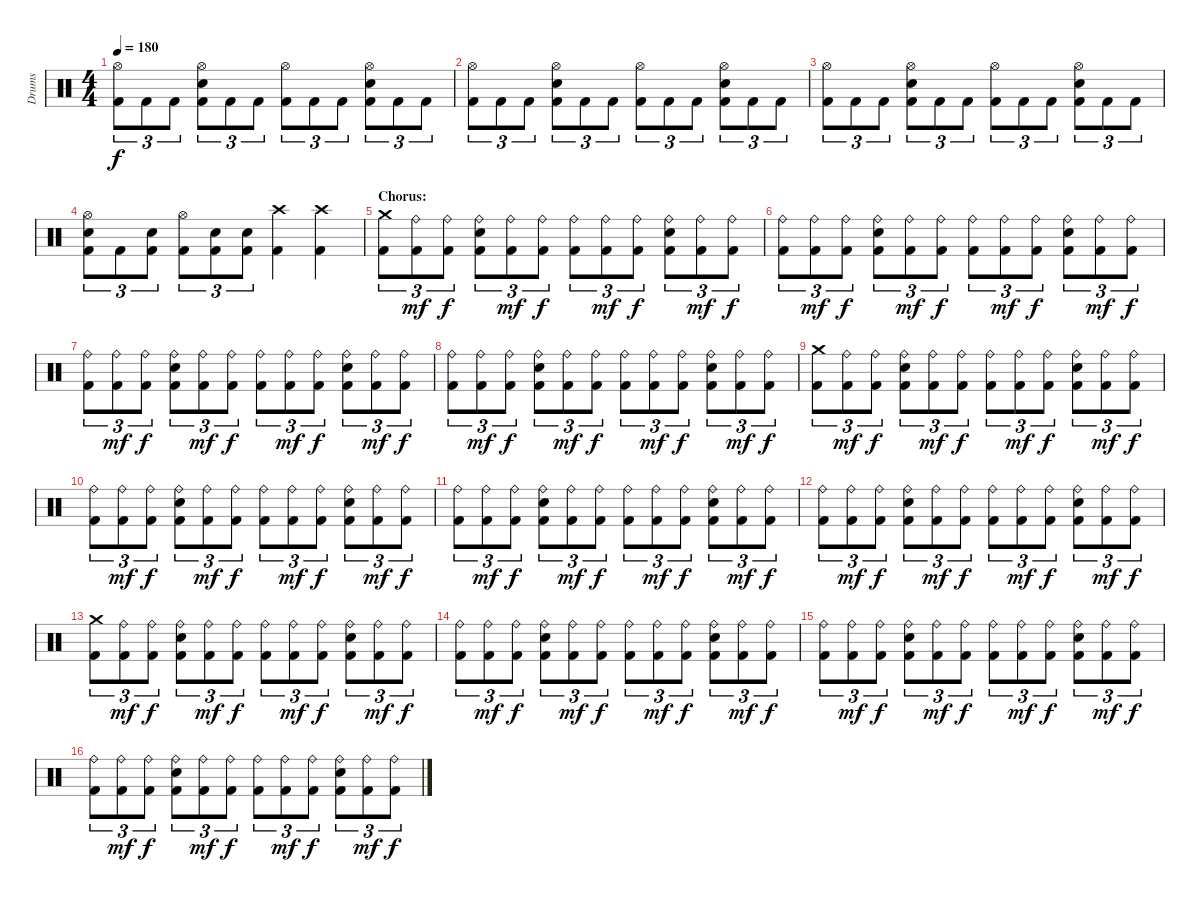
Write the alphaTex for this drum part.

\track ("Drums" "Drums") {instrument percussion}
\staff {score}
\articulation defaults
\ts (4 4)
\tempo 180
\clef neutral
\ks c
("Hi-Hat (open)" "Kick (hit) 2").8{tu (3 2) dy f} "Kick (hit) 2".8{tu (3 2)} "Kick (hit) 2".8{tu (3 2)} ("Hi-Hat (open)" "Electric Snare (hit)" "Kick (hit) 2").8{tu (3 2)} "Kick (hit) 2".8{tu (3 2)} "Kick (hit) 2".8{tu (3 2)} ("Hi-Hat (open)" "Kick (hit) 2").8{tu (3 2)} "Kick (hit) 2".8{tu (3 2)} "Kick (hit) 2".8{tu (3 2)} ("Hi-Hat (open)" "Electric Snare (hit)" "Kick (hit) 2").8{tu (3 2)} "Kick (hit) 2".8{tu (3 2)} "Kick (hit) 2".8{tu (3 2)} |
("Hi-Hat (open)" "Kick (hit) 2").8{tu (3 2)} "Kick (hit) 2".8{tu (3 2)} "Kick (hit) 2".8{tu (3 2)} ("Hi-Hat (open)" "Electric Snare (hit)" "Kick (hit) 2").8{tu (3 2)} "Kick (hit) 2".8{tu (3 2)} "Kick (hit) 2".8{tu (3 2)} ("Hi-Hat (open)" "Kick (hit) 2").8{tu (3 2)} "Kick (hit) 2".8{tu (3 2)} "Kick (hit) 2".8{tu (3 2)} ("Hi-Hat (open)" "Electric Snare (hit)" "Kick (hit) 2").8{tu (3 2)} "Kick (hit) 2".8{tu (3 2)} "Kick (hit) 2".8{tu (3 2)} |
("Hi-Hat (open)" "Kick (hit) 2").8{tu (3 2)} "Kick (hit) 2".8{tu (3 2)} "Kick (hit) 2".8{tu (3 2)} ("Hi-Hat (open)" "Electric Snare (hit)" "Kick (hit) 2").8{tu (3 2)} "Kick (hit) 2".8{tu (3 2)} "Kick (hit) 2".8{tu (3 2)} ("Hi-Hat (open)" "Kick (hit) 2").8{tu (3 2)} "Kick (hit) 2".8{tu (3 2)} "Kick (hit) 2".8{tu (3 2)} ("Hi-Hat (open)" "Electric Snare (hit)" "Kick (hit) 2").8{tu (3 2)} "Kick (hit) 2".8{tu (3 2)} "Kick (hit) 2".8{tu (3 2)} |
("Hi-Hat (open)" "Electric Snare (hit)" "Kick (hit) 2").8{tu (3 2)} "Kick (hit) 2".8{tu (3 2)} ("Electric Snare (hit)" "Kick (hit) 2").8{tu (3 2)} ("Hi-Hat (open)" "Kick (hit) 2").8{tu (3 2)} ("Electric Snare (hit)" "Kick (hit) 2").8{tu (3 2)} ("Electric Snare (hit)" "Kick (hit) 2").8{tu (3 2)} ("Crash high (hit)" "Kick (hit) 2").4 ("Crash high (hit)" "Kick (hit) 2").4 |
\section ("" "Chorus:")
("Crash medium (hit)" "Kick (hit) 2").8{tu (3 2)} ("Ride (bell)" "Kick (hit) 2").8{tu (3 2) dy mf} ("Ride (bell)" "Kick (hit) 2").8{tu (3 2) dy f} ("Ride (bell)" "Electric Snare (hit)" "Kick (hit) 2").8{tu (3 2)} ("Ride (bell)" "Kick (hit) 2").8{tu (3 2) dy mf} ("Ride (bell)" "Kick (hit) 2").8{tu (3 2) dy f} ("Ride (bell)" "Kick (hit) 2").8{tu (3 2)} ("Ride (bell)" "Kick (hit) 2").8{tu (3 2) dy mf} ("Ride (bell)" "Kick (hit) 2").8{tu (3 2) dy f} ("Ride (bell)" "Electric Snare (hit)" "Kick (hit) 2").8{tu (3 2)} ("Ride (bell)" "Kick (hit) 2").8{tu (3 2) dy mf} ("Ride (bell)" "Kick (hit) 2").8{tu (3 2) dy f} |
("Ride (bell)" "Kick (hit) 2").8{tu (3 2)} ("Ride (bell)" "Kick (hit) 2").8{tu (3 2) dy mf} ("Ride (bell)" "Kick (hit) 2").8{tu (3 2) dy f} ("Ride (bell)" "Electric Snare (hit)" "Kick (hit) 2").8{tu (3 2)} ("Ride (bell)" "Kick (hit) 2").8{tu (3 2) dy mf} ("Ride (bell)" "Kick (hit) 2").8{tu (3 2) dy f} ("Ride (bell)" "Kick (hit) 2").8{tu (3 2)} ("Ride (bell)" "Kick (hit) 2").8{tu (3 2) dy mf} ("Ride (bell)" "Kick (hit) 2").8{tu (3 2) dy f} ("Ride (bell)" "Electric Snare (hit)" "Kick (hit) 2").8{tu (3 2)} ("Ride (bell)" "Kick (hit) 2").8{tu (3 2) dy mf} ("Ride (bell)" "Kick (hit) 2").8{tu (3 2) dy f} |
("Ride (bell)" "Kick (hit) 2").8{tu (3 2)} ("Ride (bell)" "Kick (hit) 2").8{tu (3 2) dy mf} ("Ride (bell)" "Kick (hit) 2").8{tu (3 2) dy f} ("Ride (bell)" "Electric Snare (hit)" "Kick (hit) 2").8{tu (3 2)} ("Ride (bell)" "Kick (hit) 2").8{tu (3 2) dy mf} ("Ride (bell)" "Kick (hit) 2").8{tu (3 2) dy f} ("Ride (bell)" "Kick (hit) 2").8{tu (3 2)} ("Ride (bell)" "Kick (hit) 2").8{tu (3 2) dy mf} ("Ride (bell)" "Kick (hit) 2").8{tu (3 2) dy f} ("Ride (bell)" "Electric Snare (hit)" "Kick (hit) 2").8{tu (3 2)} ("Ride (bell)" "Kick (hit) 2").8{tu (3 2) dy mf} ("Ride (bell)" "Kick (hit) 2").8{tu (3 2) dy f} |
("Ride (bell)" "Kick (hit) 2").8{tu (3 2)} ("Ride (bell)" "Kick (hit) 2").8{tu (3 2) dy mf} ("Ride (bell)" "Kick (hit) 2").8{tu (3 2) dy f} ("Ride (bell)" "Electric Snare (hit)" "Kick (hit) 2").8{tu (3 2)} ("Ride (bell)" "Kick (hit) 2").8{tu (3 2) dy mf} ("Ride (bell)" "Kick (hit) 2").8{tu (3 2) dy f} ("Ride (bell)" "Kick (hit) 2").8{tu (3 2)} ("Ride (bell)" "Kick (hit) 2").8{tu (3 2) dy mf} ("Ride (bell)" "Kick (hit) 2").8{tu (3 2) dy f} ("Ride (bell)" "Electric Snare (hit)" "Kick (hit) 2").8{tu (3 2)} ("Ride (bell)" "Kick (hit) 2").8{tu (3 2) dy mf} ("Ride (bell)" "Kick (hit) 2").8{tu (3 2) dy f} |
("Crash medium (hit)" "Kick (hit) 2").8{tu (3 2)} ("Ride (bell)" "Kick (hit) 2").8{tu (3 2) dy mf} ("Ride (bell)" "Kick (hit) 2").8{tu (3 2) dy f} ("Ride (bell)" "Electric Snare (hit)" "Kick (hit) 2").8{tu (3 2)} ("Ride (bell)" "Kick (hit) 2").8{tu (3 2) dy mf} ("Ride (bell)" "Kick (hit) 2").8{tu (3 2) dy f} ("Ride (bell)" "Kick (hit) 2").8{tu (3 2)} ("Ride (bell)" "Kick (hit) 2").8{tu (3 2) dy mf} ("Ride (bell)" "Kick (hit) 2").8{tu (3 2) dy f} ("Ride (bell)" "Electric Snare (hit)" "Kick (hit) 2").8{tu (3 2)} ("Ride (bell)" "Kick (hit) 2").8{tu (3 2) dy mf} ("Ride (bell)" "Kick (hit) 2").8{tu (3 2) dy f} |
("Ride (bell)" "Kick (hit) 2").8{tu (3 2)} ("Ride (bell)" "Kick (hit) 2").8{tu (3 2) dy mf} ("Ride (bell)" "Kick (hit) 2").8{tu (3 2) dy f} ("Ride (bell)" "Electric Snare (hit)" "Kick (hit) 2").8{tu (3 2)} ("Ride (bell)" "Kick (hit) 2").8{tu (3 2) dy mf} ("Ride (bell)" "Kick (hit) 2").8{tu (3 2) dy f} ("Ride (bell)" "Kick (hit) 2").8{tu (3 2)} ("Ride (bell)" "Kick (hit) 2").8{tu (3 2) dy mf} ("Ride (bell)" "Kick (hit) 2").8{tu (3 2) dy f} ("Ride (bell)" "Electric Snare (hit)" "Kick (hit) 2").8{tu (3 2)} ("Ride (bell)" "Kick (hit) 2").8{tu (3 2) dy mf} ("Ride (bell)" "Kick (hit) 2").8{tu (3 2) dy f} |
("Ride (bell)" "Kick (hit) 2").8{tu (3 2)} ("Ride (bell)" "Kick (hit) 2").8{tu (3 2) dy mf} ("Ride (bell)" "Kick (hit) 2").8{tu (3 2) dy f} ("Ride (bell)" "Electric Snare (hit)" "Kick (hit) 2").8{tu (3 2)} ("Ride (bell)" "Kick (hit) 2").8{tu (3 2) dy mf} ("Ride (bell)" "Kick (hit) 2").8{tu (3 2) dy f} ("Ride (bell)" "Kick (hit) 2").8{tu (3 2)} ("Ride (bell)" "Kick (hit) 2").8{tu (3 2) dy mf} ("Ride (bell)" "Kick (hit) 2").8{tu (3 2) dy f} ("Ride (bell)" "Electric Snare (hit)" "Kick (hit) 2").8{tu (3 2)} ("Ride (bell)" "Kick (hit) 2").8{tu (3 2) dy mf} ("Ride (bell)" "Kick (hit) 2").8{tu (3 2) dy f} |
("Ride (bell)" "Kick (hit) 2").8{tu (3 2)} ("Ride (bell)" "Kick (hit) 2").8{tu (3 2) dy mf} ("Ride (bell)" "Kick (hit) 2").8{tu (3 2) dy f} ("Ride (bell)" "Electric Snare (hit)" "Kick (hit) 2").8{tu (3 2)} ("Ride (bell)" "Kick (hit) 2").8{tu (3 2) dy mf} ("Ride (bell)" "Kick (hit) 2").8{tu (3 2) dy f} ("Ride (bell)" "Kick (hit) 2").8{tu (3 2)} ("Ride (bell)" "Kick (hit) 2").8{tu (3 2) dy mf} ("Ride (bell)" "Kick (hit) 2").8{tu (3 2) dy f} ("Ride (bell)" "Electric Snare (hit)" "Kick (hit) 2").8{tu (3 2)} ("Ride (bell)" "Kick (hit) 2").8{tu (3 2) dy mf} ("Ride (bell)" "Kick (hit) 2").8{tu (3 2) dy f} |
("Crash medium (hit)" "Kick (hit) 2").8{tu (3 2)} ("Ride (bell)" "Kick (hit) 2").8{tu (3 2) dy mf} ("Ride (bell)" "Kick (hit) 2").8{tu (3 2) dy f} ("Ride (bell)" "Electric Snare (hit)" "Kick (hit) 2").8{tu (3 2)} ("Ride (bell)" "Kick (hit) 2").8{tu (3 2) dy mf} ("Ride (bell)" "Kick (hit) 2").8{tu (3 2) dy f} ("Ride (bell)" "Kick (hit) 2").8{tu (3 2)} ("Ride (bell)" "Kick (hit) 2").8{tu (3 2) dy mf} ("Ride (bell)" "Kick (hit) 2").8{tu (3 2) dy f} ("Ride (bell)" "Electric Snare (hit)" "Kick (hit) 2").8{tu (3 2)} ("Ride (bell)" "Kick (hit) 2").8{tu (3 2) dy mf} ("Ride (bell)" "Kick (hit) 2").8{tu (3 2) dy f} |
("Ride (bell)" "Kick (hit) 2").8{tu (3 2)} ("Ride (bell)" "Kick (hit) 2").8{tu (3 2) dy mf} ("Ride (bell)" "Kick (hit) 2").8{tu (3 2) dy f} ("Ride (bell)" "Electric Snare (hit)" "Kick (hit) 2").8{tu (3 2)} ("Ride (bell)" "Kick (hit) 2").8{tu (3 2) dy mf} ("Ride (bell)" "Kick (hit) 2").8{tu (3 2) dy f} ("Ride (bell)" "Kick (hit) 2").8{tu (3 2)} ("Ride (bell)" "Kick (hit) 2").8{tu (3 2) dy mf} ("Ride (bell)" "Kick (hit) 2").8{tu (3 2) dy f} ("Ride (bell)" "Electric Snare (hit)" "Kick (hit) 2").8{tu (3 2)} ("Ride (bell)" "Kick (hit) 2").8{tu (3 2) dy mf} ("Ride (bell)" "Kick (hit) 2").8{tu (3 2) dy f} |
("Ride (bell)" "Kick (hit) 2").8{tu (3 2)} ("Ride (bell)" "Kick (hit) 2").8{tu (3 2) dy mf} ("Ride (bell)" "Kick (hit) 2").8{tu (3 2) dy f} ("Ride (bell)" "Electric Snare (hit)" "Kick (hit) 2").8{tu (3 2)} ("Ride (bell)" "Kick (hit) 2").8{tu (3 2) dy mf} ("Ride (bell)" "Kick (hit) 2").8{tu (3 2) dy f} ("Ride (bell)" "Kick (hit) 2").8{tu (3 2)} ("Ride (bell)" "Kick (hit) 2").8{tu (3 2) dy mf} ("Ride (bell)" "Kick (hit) 2").8{tu (3 2) dy f} ("Ride (bell)" "Electric Snare (hit)" "Kick (hit) 2").8{tu (3 2)} ("Ride (bell)" "Kick (hit) 2").8{tu (3 2) dy mf} ("Ride (bell)" "Kick (hit) 2").8{tu (3 2) dy f} |
("Ride (bell)" "Kick (hit) 2").8{tu (3 2)} ("Ride (bell)" "Kick (hit) 2").8{tu (3 2) dy mf} ("Ride (bell)" "Kick (hit) 2").8{tu (3 2) dy f} ("Ride (bell)" "Electric Snare (hit)" "Kick (hit) 2").8{tu (3 2)} ("Ride (bell)" "Kick (hit) 2").8{tu (3 2) dy mf} ("Ride (bell)" "Kick (hit) 2").8{tu (3 2) dy f} ("Ride (bell)" "Kick (hit) 2").8{tu (3 2)} ("Ride (bell)" "Kick (hit) 2").8{tu (3 2) dy mf} ("Ride (bell)" "Kick (hit) 2").8{tu (3 2) dy f} ("Ride (bell)" "Electric Snare (hit)" "Kick (hit) 2").8{tu (3 2)} ("Ride (bell)" "Kick (hit) 2").8{tu (3 2) dy mf} ("Ride (bell)" "Kick (hit) 2").8{tu (3 2) dy f}
